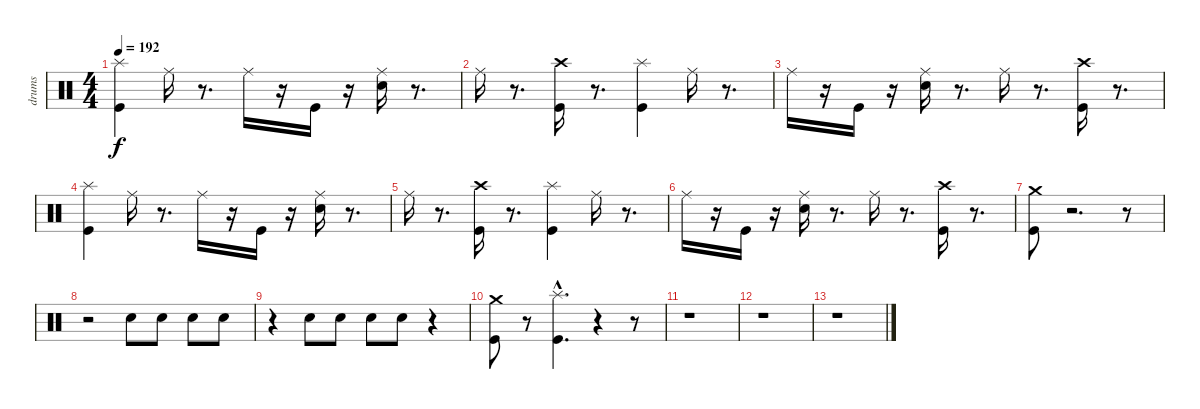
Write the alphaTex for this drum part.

\track ("drums" "drums") {instrument percussion}
\staff {score}
\articulation defaults
\ts (4 4)
\tempo 192
\clef neutral
\ks c
("Splash (hit)" "Kick (hit)").4{dy f} "Ride (middle)".16 r.8{d} "Ride (middle)".16 r.16 "Kick (hit)".16 r.16 ("Ride (middle)" "Snare (hit) 2").16 r.8{d} |
"Ride (middle)".16 r.8{d} ("Kick (hit)" "Crash high (hit)").16 r.8{d} ("Splash (hit)" "Kick (hit)").4 "Ride (middle)".16 r.8{d} |
"Ride (middle)".16 r.16 "Kick (hit)".16 r.16 ("Ride (middle)" "Snare (hit) 2").16 r.8{d} "Ride (middle)".16 r.8{d} ("Kick (hit)" "Crash high (hit)").16 r.8{d} |
("Splash (hit)" "Kick (hit)").4 "Ride (middle)".16 r.8{d} "Ride (middle)".16 r.16 "Kick (hit)".16 r.16 ("Ride (middle)" "Snare (hit) 2").16 r.8{d} |
"Ride (middle)".16 r.8{d} ("Kick (hit)" "Crash high (hit)").16 r.8{d} ("Splash (hit)" "Kick (hit)").4 "Ride (middle)".16 r.8{d} |
"Ride (middle)".16 r.16 "Kick (hit)".16 r.16 ("Ride (middle)" "Snare (hit) 2").16 r.8{d} "Ride (middle)".16 r.8{d} ("Kick (hit)" "Crash high (hit)").16 r.8{d} |
("Crash medium (hit)" "Kick (hit)").8 r.2{d} r.8 |
r.2 "Electric Snare (hit)".8 "Electric Snare (hit)".8 "Electric Snare (hit)".8 "Electric Snare (hit)".8 |
r.4 "Electric Snare (hit)".8 "Electric Snare (hit)".8 "Electric Snare (hit)".8 "Electric Snare (hit)".8 r.4 |
("Crash medium (hit)" "Kick (hit)").8 r.8 ("Splash (hit)"{hac} "Kick (hit)"{hac}).4{d} r.4 r.8 |
r.1 |
r.1 |
r.1
